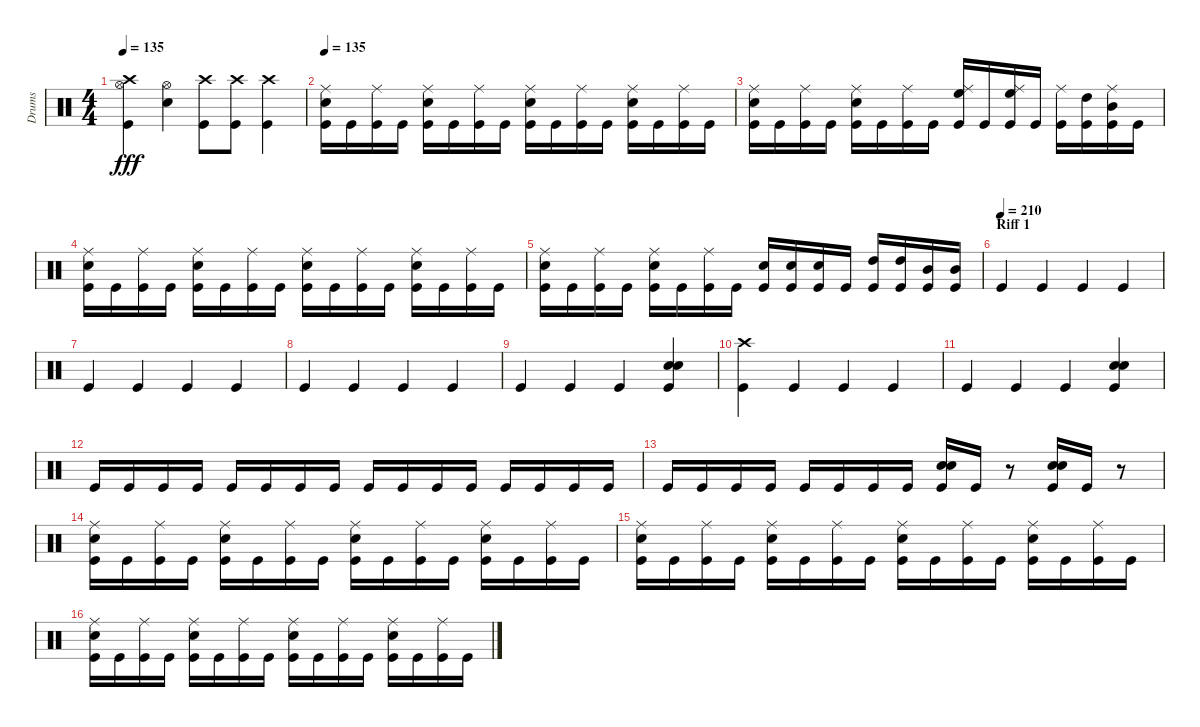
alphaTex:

\track ("Drums" "Drums") {instrument percussion}
\staff {score}
\articulation defaults
\ts (4 4)
\tempo 135
\clef neutral
\ks c
("Hi-Hat (open)" "Crash high (hit)" "Kick (hit)").4{dy fff} ("Hi-Hat (open)" "Snare (hit) 2").4 ("Crash high (hit)" "Kick (hit)").8 ("Crash high (hit)" "Kick (hit)").8 ("Crash high (hit)" "Kick (hit)").4 |
\tempo 135
("Ride (middle)" "Snare (hit) 2" "Kick (hit)").16 "Kick (hit)".16 ("Ride (middle)" "Kick (hit)").16 "Kick (hit)".16 ("Ride (middle)" "Snare (hit) 2" "Kick (hit)").16 "Kick (hit)".16 ("Ride (middle)" "Kick (hit)").16 "Kick (hit)".16 ("Ride (middle)" "Snare (hit) 2" "Kick (hit)").16 "Kick (hit)".16 ("Ride (middle)" "Kick (hit)").16 "Kick (hit)".16 ("Ride (middle)" "Snare (hit) 2" "Kick (hit)").16 "Kick (hit)".16 ("Ride (middle)" "Kick (hit)").16 "Kick (hit)".16 |
("Ride (middle)" "Snare (hit) 2" "Kick (hit)").16 "Kick (hit)".16 ("Ride (middle)" "Kick (hit)").16 "Kick (hit)".16 ("Ride (middle)" "Snare (hit) 2" "Kick (hit)").16 "Kick (hit)".16 ("Ride (middle)" "Kick (hit)").16 "Kick (hit)".16 ("Ride (middle)" "High Floor Tom (hit)" "Kick (hit)").16 "Kick (hit)".16 ("Ride (middle)" "High Floor Tom (hit)" "Kick (hit)").16 "Kick (hit)".16 ("Ride (middle)" "Kick (hit)").16 ("High Tom (hit)" "Kick (hit)").16 ("Ride (middle)" "Mid Tom (hit)" "Kick (hit)").16 "Kick (hit)".16 |
("Ride (middle)" "Snare (hit) 2" "Kick (hit)").16 "Kick (hit)".16 ("Ride (middle)" "Kick (hit)").16 "Kick (hit)".16 ("Ride (middle)" "Snare (hit) 2" "Kick (hit)").16 "Kick (hit)".16 ("Ride (middle)" "Kick (hit)").16 "Kick (hit)".16 ("Ride (middle)" "Snare (hit) 2" "Kick (hit)").16 "Kick (hit)".16 ("Ride (middle)" "Kick (hit)").16 "Kick (hit)".16 ("Ride (middle)" "Snare (hit) 2" "Kick (hit)").16 "Kick (hit)".16 ("Ride (middle)" "Kick (hit)").16 "Kick (hit)".16 |
("Ride (middle)" "Snare (hit) 2" "Kick (hit)").16 "Kick (hit)".16 ("Ride (middle)" "Kick (hit)").16 "Kick (hit)".16 ("Ride (middle)" "Snare (hit) 2" "Kick (hit)").16 "Kick (hit)".16 ("Ride (middle)" "Kick (hit)").16 "Kick (hit)".16 ("Snare (hit) 2" "Kick (hit)").16 ("Snare (hit) 2" "Kick (hit)").16 ("Snare (hit) 2" "Kick (hit)").16 "Kick (hit)".16 ("High Tom (hit)" "Kick (hit)").16 ("High Tom (hit)" "Kick (hit)").16 ("Mid Tom (hit)" "Kick (hit)").16 ("Mid Tom (hit)" "Kick (hit)").16 |
\section ("" "Riff 1")
\tempo (210)
"Kick (hit)".4 "Kick (hit)".4 "Kick (hit)".4 "Kick (hit)".4 |
"Kick (hit)".4 "Kick (hit)".4 "Kick (hit)".4 "Kick (hit)".4 |
"Kick (hit)".4 "Kick (hit)".4 "Kick (hit)".4 "Kick (hit)".4 |
"Kick (hit)".4 "Kick (hit)".4 "Kick (hit)".4 ("Snare (hit) 2" "Snare (hit) 2" "Kick (hit)").4 |
("Crash high (hit)" "Kick (hit)").4 "Kick (hit)".4 "Kick (hit)".4 "Kick (hit)".4 |
"Kick (hit)".4 "Kick (hit)".4 "Kick (hit)".4 ("Snare (hit) 2" "Snare (hit) 2" "Kick (hit)").4 |
"Kick (hit)".16 "Kick (hit)".16 "Kick (hit)".16 "Kick (hit)".16 "Kick (hit)".16 "Kick (hit)".16 "Kick (hit)".16 "Kick (hit)".16 "Kick (hit)".16 "Kick (hit)".16 "Kick (hit)".16 "Kick (hit)".16 "Kick (hit)".16 "Kick (hit)".16 "Kick (hit)".16 "Kick (hit)".16 |
"Kick (hit)".16 "Kick (hit)".16 "Kick (hit)".16 "Kick (hit)".16 "Kick (hit)".16 "Kick (hit)".16 "Kick (hit)".16 "Kick (hit)".16 ("Snare (hit) 2" "Snare (hit) 2" "Kick (hit)").16 "Kick (hit)".16 r.8 ("Snare (hit) 2" "Snare (hit) 2" "Kick (hit)").16 "Kick (hit)".16 r.8 |
("Ride (middle)" "Snare (hit) 2" "Kick (hit)").16 "Kick (hit)".16 ("Ride (middle)" "Kick (hit)").16 "Kick (hit)".16 ("Ride (middle)" "Snare (hit) 2" "Kick (hit)").16 "Kick (hit)".16 ("Ride (middle)" "Kick (hit)").16 "Kick (hit)".16 ("Ride (middle)" "Snare (hit) 2" "Kick (hit)").16 "Kick (hit)".16 ("Ride (middle)" "Kick (hit)").16 "Kick (hit)".16 ("Ride (middle)" "Snare (hit) 2" "Kick (hit)").16 "Kick (hit)".16 ("Ride (middle)" "Kick (hit)").16 "Kick (hit)".16 |
("Ride (middle)" "Snare (hit) 2" "Kick (hit)").16 "Kick (hit)".16 ("Ride (middle)" "Kick (hit)").16 "Kick (hit)".16 ("Ride (middle)" "Snare (hit) 2" "Kick (hit)").16 "Kick (hit)".16 ("Ride (middle)" "Kick (hit)").16 "Kick (hit)".16 ("Ride (middle)" "Snare (hit) 2" "Kick (hit)").16 "Kick (hit)".16 ("Ride (middle)" "Kick (hit)").16 "Kick (hit)".16 ("Ride (middle)" "Snare (hit) 2" "Kick (hit)").16 "Kick (hit)".16 ("Ride (middle)" "Kick (hit)").16 "Kick (hit)".16 |
("Ride (middle)" "Snare (hit) 2" "Kick (hit)").16 "Kick (hit)".16 ("Ride (middle)" "Kick (hit)").16 "Kick (hit)".16 ("Ride (middle)" "Snare (hit) 2" "Kick (hit)").16 "Kick (hit)".16 ("Ride (middle)" "Kick (hit)").16 "Kick (hit)".16 ("Ride (middle)" "Snare (hit) 2" "Kick (hit)").16 "Kick (hit)".16 ("Ride (middle)" "Kick (hit)").16 "Kick (hit)".16 ("Ride (middle)" "Snare (hit) 2" "Kick (hit)").16 "Kick (hit)".16 ("Ride (middle)" "Kick (hit)").16 "Kick (hit)".16
